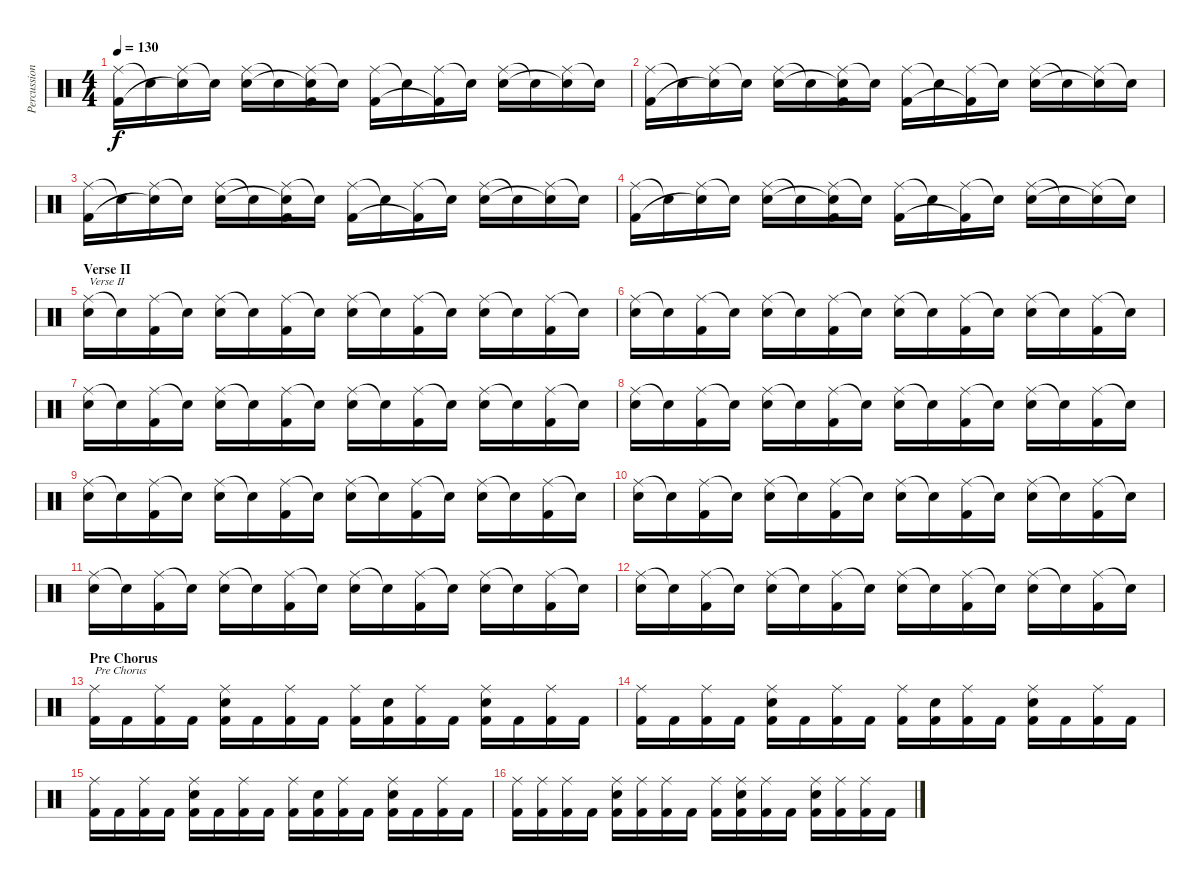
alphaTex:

\track ("Percussion" "Percussion") {instrument percussion}
\staff {score}
\articulation defaults
\ts (4 4)
\tempo 130
\clef neutral
\ks c
("Ride (middle)" "Kick (hit) 2").16{dy f} "Snare (hit)"{t}.16 ("Ride (middle)" "Snare (hit)"{t}).16 "Snare (hit)"{t}.16 ("Ride (middle)" "Electric Snare (hit)").16 "Snare (hit)"{t}.16 ("Ride (middle)" "Snare (hit)"{t} "Kick (hit) 2").16 "Snare (hit)"{t}.16 ("Ride (middle)" "Kick (hit) 2").16 "Snare (hit)"{t}.16 ("Ride (middle)" "Kick (hit) 2"{t}).16 "Snare (hit)"{t}.16 ("Ride (middle)" "Electric Snare (hit)").16 "Snare (hit)"{t}.16 ("Ride (middle)" "Snare (hit)"{t}).16 "Snare (hit)"{t}.16 |
("Ride (middle)" "Kick (hit) 2").16 "Snare (hit)"{t}.16 ("Ride (middle)" "Snare (hit)"{t}).16 "Snare (hit)"{t}.16 ("Ride (middle)" "Electric Snare (hit)").16 "Snare (hit)"{t}.16 ("Ride (middle)" "Snare (hit)"{t} "Kick (hit) 2").16 "Snare (hit)"{t}.16 ("Ride (middle)" "Kick (hit) 2").16 "Snare (hit)"{t}.16 ("Ride (middle)" "Kick (hit) 2"{t}).16 "Snare (hit)"{t}.16 ("Ride (middle)" "Electric Snare (hit)").16 "Snare (hit)"{t}.16 ("Ride (middle)" "Snare (hit)"{t}).16 "Snare (hit)"{t}.16 |
("Ride (middle)" "Kick (hit) 2").16 "Snare (hit)"{t}.16 ("Ride (middle)" "Snare (hit)"{t}).16 "Snare (hit)"{t}.16 ("Ride (middle)" "Electric Snare (hit)").16 "Snare (hit)"{t}.16 ("Ride (middle)" "Snare (hit)"{t} "Kick (hit) 2").16 "Snare (hit)"{t}.16 ("Ride (middle)" "Kick (hit) 2").16 "Snare (hit)"{t}.16 ("Ride (middle)" "Kick (hit) 2"{t}).16 "Snare (hit)"{t}.16 ("Ride (middle)" "Electric Snare (hit)").16 "Snare (hit)"{t}.16 ("Ride (middle)" "Snare (hit)"{t}).16 "Snare (hit)"{t}.16 |
("Ride (middle)" "Kick (hit) 2").16 "Snare (hit)"{t}.16 ("Ride (middle)" "Snare (hit)"{t}).16 "Snare (hit)"{t}.16 ("Ride (middle)" "Electric Snare (hit)").16 "Snare (hit)"{t}.16 ("Ride (middle)" "Snare (hit)"{t} "Kick (hit) 2").16 "Snare (hit)"{t}.16 ("Ride (middle)" "Kick (hit) 2").16 "Snare (hit)"{t}.16 ("Ride (middle)" "Kick (hit) 2"{t}).16 "Snare (hit)"{t}.16 ("Ride (middle)" "Electric Snare (hit)").16 "Snare (hit)"{t}.16 ("Ride (middle)" "Snare (hit)"{t}).16 "Snare (hit)"{t}.16 |
\section ("" "Verse II")
("Ride (middle)" "Electric Snare (hit)").16{txt "Verse II"} "Snare (hit)"{t}.16 ("Ride (middle)" "Kick (hit) 2").16 "Snare (hit)"{t}.16 ("Ride (middle)" "Electric Snare (hit)").16 "Snare (hit)"{t}.16 ("Ride (middle)" "Kick (hit) 2").16 "Snare (hit)"{t}.16 ("Ride (middle)" "Electric Snare (hit)").16 "Snare (hit)"{t}.16 ("Ride (middle)" "Kick (hit) 2").16 "Snare (hit)"{t}.16 ("Ride (middle)" "Electric Snare (hit)").16 "Snare (hit)"{t}.16 ("Ride (middle)" "Kick (hit) 2").16 "Snare (hit)"{t}.16 |
("Ride (middle)" "Electric Snare (hit)").16 "Snare (hit)"{t}.16 ("Ride (middle)" "Kick (hit) 2").16 "Snare (hit)"{t}.16 ("Ride (middle)" "Electric Snare (hit)").16 "Snare (hit)"{t}.16 ("Ride (middle)" "Kick (hit) 2").16 "Snare (hit)"{t}.16 ("Ride (middle)" "Electric Snare (hit)").16 "Snare (hit)"{t}.16 ("Ride (middle)" "Kick (hit) 2").16 "Snare (hit)"{t}.16 ("Ride (middle)" "Electric Snare (hit)").16 "Snare (hit)"{t}.16 ("Ride (middle)" "Kick (hit) 2").16 "Snare (hit)"{t}.16 |
("Ride (middle)" "Electric Snare (hit)").16 "Snare (hit)"{t}.16 ("Ride (middle)" "Kick (hit) 2").16 "Snare (hit)"{t}.16 ("Ride (middle)" "Electric Snare (hit)").16 "Snare (hit)"{t}.16 ("Ride (middle)" "Kick (hit) 2").16 "Snare (hit)"{t}.16 ("Ride (middle)" "Electric Snare (hit)").16 "Snare (hit)"{t}.16 ("Ride (middle)" "Kick (hit) 2").16 "Snare (hit)"{t}.16 ("Ride (middle)" "Electric Snare (hit)").16 "Snare (hit)"{t}.16 ("Ride (middle)" "Kick (hit) 2").16 "Snare (hit)"{t}.16 |
("Ride (middle)" "Electric Snare (hit)").16 "Snare (hit)"{t}.16 ("Ride (middle)" "Kick (hit) 2").16 "Snare (hit)"{t}.16 ("Ride (middle)" "Electric Snare (hit)").16 "Snare (hit)"{t}.16 ("Ride (middle)" "Kick (hit) 2").16 "Snare (hit)"{t}.16 ("Ride (middle)" "Electric Snare (hit)").16 "Snare (hit)"{t}.16 ("Ride (middle)" "Kick (hit) 2").16 "Snare (hit)"{t}.16 ("Ride (middle)" "Electric Snare (hit)").16 "Snare (hit)"{t}.16 ("Ride (middle)" "Kick (hit) 2").16 "Snare (hit)"{t}.16 |
("Ride (middle)" "Electric Snare (hit)").16 "Snare (hit)"{t}.16 ("Ride (middle)" "Kick (hit) 2").16 "Snare (hit)"{t}.16 ("Ride (middle)" "Electric Snare (hit)").16 "Snare (hit)"{t}.16 ("Ride (middle)" "Kick (hit) 2").16 "Snare (hit)"{t}.16 ("Ride (middle)" "Electric Snare (hit)").16 "Snare (hit)"{t}.16 ("Ride (middle)" "Kick (hit) 2").16 "Snare (hit)"{t}.16 ("Ride (middle)" "Electric Snare (hit)").16 "Snare (hit)"{t}.16 ("Ride (middle)" "Kick (hit) 2").16 "Snare (hit)"{t}.16 |
("Ride (middle)" "Electric Snare (hit)").16 "Snare (hit)"{t}.16 ("Ride (middle)" "Kick (hit) 2").16 "Snare (hit)"{t}.16 ("Ride (middle)" "Electric Snare (hit)").16 "Snare (hit)"{t}.16 ("Ride (middle)" "Kick (hit) 2").16 "Snare (hit)"{t}.16 ("Ride (middle)" "Electric Snare (hit)").16 "Snare (hit)"{t}.16 ("Ride (middle)" "Kick (hit) 2").16 "Snare (hit)"{t}.16 ("Ride (middle)" "Electric Snare (hit)").16 "Snare (hit)"{t}.16 ("Ride (middle)" "Kick (hit) 2").16 "Snare (hit)"{t}.16 |
("Ride (middle)" "Electric Snare (hit)").16 "Snare (hit)"{t}.16 ("Ride (middle)" "Kick (hit) 2").16 "Snare (hit)"{t}.16 ("Ride (middle)" "Electric Snare (hit)").16 "Snare (hit)"{t}.16 ("Ride (middle)" "Kick (hit) 2").16 "Snare (hit)"{t}.16 ("Ride (middle)" "Electric Snare (hit)").16 "Snare (hit)"{t}.16 ("Ride (middle)" "Kick (hit) 2").16 "Snare (hit)"{t}.16 ("Ride (middle)" "Electric Snare (hit)").16 "Snare (hit)"{t}.16 ("Ride (middle)" "Kick (hit) 2").16 "Snare (hit)"{t}.16 |
("Ride (middle)" "Electric Snare (hit)").16 "Snare (hit)"{t}.16 ("Ride (middle)" "Kick (hit) 2").16 "Snare (hit)"{t}.16 ("Ride (middle)" "Electric Snare (hit)").16 "Snare (hit)"{t}.16 ("Ride (middle)" "Kick (hit) 2").16 "Snare (hit)"{t}.16 ("Ride (middle)" "Electric Snare (hit)").16 "Snare (hit)"{t}.16 ("Ride (middle)" "Kick (hit) 2").16 "Snare (hit)"{t}.16 ("Ride (middle)" "Electric Snare (hit)").16 "Snare (hit)"{t}.16 ("Ride (middle)" "Kick (hit) 2").16 "Snare (hit)"{t}.16 |
\section ("" "Pre Chorus")
("Ride (middle)" "Kick (hit) 2").16{txt "Pre Chorus"} "Kick (hit) 2".16 ("Ride (middle)" "Kick (hit) 2").16 "Kick (hit) 2".16 ("Ride (middle)" "Electric Snare (hit)" "Kick (hit) 2").16 "Kick (hit) 2".16 ("Ride (middle)" "Kick (hit) 2").16 "Kick (hit) 2".16 ("Ride (middle)" "Kick (hit) 2").16 ("Electric Snare (hit)" "Kick (hit) 2").16 ("Ride (middle)" "Kick (hit) 2").16 "Kick (hit) 2".16 ("Ride (middle)" "Electric Snare (hit)" "Kick (hit) 2").16 "Kick (hit) 2".16 ("Ride (middle)" "Kick (hit) 2").16 "Kick (hit) 2".16 |
("Ride (middle)" "Kick (hit) 2").16 "Kick (hit) 2".16 ("Ride (middle)" "Kick (hit) 2").16 "Kick (hit) 2".16 ("Ride (middle)" "Electric Snare (hit)" "Kick (hit) 2").16 "Kick (hit) 2".16 ("Ride (middle)" "Kick (hit) 2").16 "Kick (hit) 2".16 ("Ride (middle)" "Kick (hit) 2").16 ("Electric Snare (hit)" "Kick (hit) 2").16 ("Ride (middle)" "Kick (hit) 2").16 "Kick (hit) 2".16 ("Ride (middle)" "Electric Snare (hit)" "Kick (hit) 2").16 "Kick (hit) 2".16 ("Ride (middle)" "Kick (hit) 2").16 "Kick (hit) 2".16 |
("Ride (middle)" "Kick (hit) 2").16 "Kick (hit) 2".16 ("Ride (middle)" "Kick (hit) 2").16 "Kick (hit) 2".16 ("Ride (middle)" "Electric Snare (hit)" "Kick (hit) 2").16 "Kick (hit) 2".16 ("Ride (middle)" "Kick (hit) 2").16 "Kick (hit) 2".16 ("Ride (middle)" "Kick (hit) 2").16 ("Electric Snare (hit)" "Kick (hit) 2").16 ("Ride (middle)" "Kick (hit) 2").16 "Kick (hit) 2".16 ("Ride (middle)" "Electric Snare (hit)" "Kick (hit) 2").16 "Kick (hit) 2".16 ("Ride (middle)" "Kick (hit) 2").16 "Kick (hit) 2".16 |
("Ride (middle)" "Kick (hit) 2").16 ("Ride (middle)" "Kick (hit) 2").16 ("Ride (middle)" "Kick (hit) 2").16 "Kick (hit) 2".16 ("Ride (middle)" "Electric Snare (hit)" "Kick (hit) 2").16 ("Ride (middle)" "Kick (hit) 2").16 ("Ride (middle)" "Kick (hit) 2").16 "Kick (hit) 2".16 ("Ride (middle)" "Kick (hit) 2").16 ("Ride (middle)" "Electric Snare (hit)" "Kick (hit) 2").16 ("Ride (middle)" "Kick (hit) 2").16 "Kick (hit) 2".16 ("Ride (middle)" "Electric Snare (hit)" "Kick (hit) 2").16 ("Ride (middle)" "Kick (hit) 2").16 ("Ride (middle)" "Kick (hit) 2").16 "Kick (hit) 2".16
